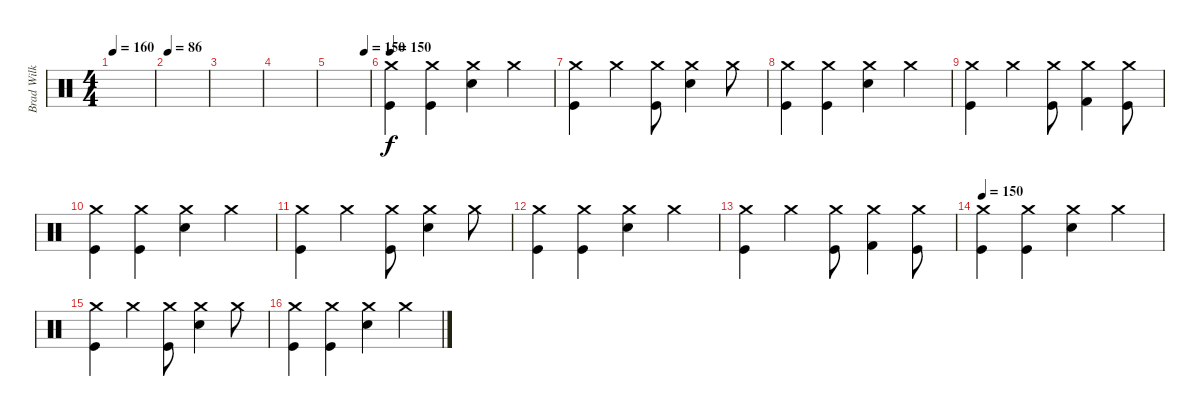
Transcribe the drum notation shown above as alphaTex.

\track ("Brad Wilk" "Brad Wilk") {instrument percussion}
\staff {score}
\articulation defaults
\ts (4 4)
\tempo 160
\tempo 86
\tempo 160
\clef neutral
\ks c
|
\tempo 86
|
|
|
\tempo (150 0.875)
|
\tempo 150
("Crash medium (hit)" "Kick (hit)").4 ("Crash medium (hit)" "Kick (hit)").4 ("Crash medium (hit)" "Electric Snare (hit)").4 "Crash medium (hit)".4 |
("Crash medium (hit)" "Kick (hit)").4 "Crash medium (hit)".4 ("Crash medium (hit)" "Kick (hit)").8 ("Crash medium (hit)" "Electric Snare (hit)").4 "Crash medium (hit)".8 |
("Crash medium (hit)" "Kick (hit)").4 ("Crash medium (hit)" "Kick (hit)").4 ("Crash medium (hit)" "Electric Snare (hit)").4 "Crash medium (hit)".4 |
("Crash medium (hit)" "Kick (hit)").4 "Crash medium (hit)".4 ("Crash medium (hit)" "Kick (hit)").8 ("Crash medium (hit)" "Kick (hit) 2").4 ("Crash medium (hit)" "Kick (hit)").8 |
("Crash medium (hit)" "Kick (hit)").4 ("Crash medium (hit)" "Kick (hit)").4 ("Crash medium (hit)" "Electric Snare (hit)").4 "Crash medium (hit)".4 |
("Crash medium (hit)" "Kick (hit)").4 "Crash medium (hit)".4 ("Crash medium (hit)" "Kick (hit)").8 ("Crash medium (hit)" "Electric Snare (hit)").4 "Crash medium (hit)".8 |
("Crash medium (hit)" "Kick (hit)").4 ("Crash medium (hit)" "Kick (hit)").4 ("Crash medium (hit)" "Electric Snare (hit)").4 "Crash medium (hit)".4 |
("Crash medium (hit)" "Kick (hit)").4 "Crash medium (hit)".4 ("Crash medium (hit)" "Kick (hit)").8 ("Crash medium (hit)" "Kick (hit) 2").4 ("Crash medium (hit)" "Kick (hit)").8 |
\tempo 150
("Crash medium (hit)" "Kick (hit)").4 ("Crash medium (hit)" "Kick (hit)").4 ("Crash medium (hit)" "Electric Snare (hit)").4 "Crash medium (hit)".4 |
("Crash medium (hit)" "Kick (hit)").4 "Crash medium (hit)".4 ("Crash medium (hit)" "Kick (hit)").8 ("Crash medium (hit)" "Electric Snare (hit)").4 "Crash medium (hit)".8 |
("Crash medium (hit)" "Kick (hit)").4 ("Crash medium (hit)" "Kick (hit)").4 ("Crash medium (hit)" "Electric Snare (hit)").4 "Crash medium (hit)".4
